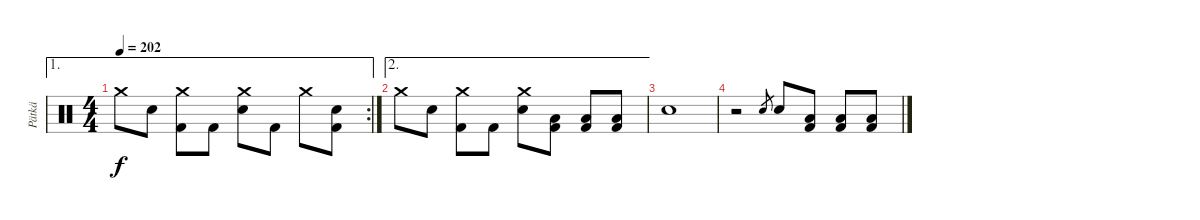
\track ("Pätkä" "Pätkä") {instrument percussion}
\staff {score}
\articulation defaults
\ae 1
\rc 2
\ts (4 4)
\tempo 202
\clef neutral
\ks c "Crash medium (hit)".8{dy f} "Electric Snare (hit)".8
("Crash medium (hit)" "Kick (hit) 2").8 "Kick (hit) 2".8 ("Crash medium (hit)" "Electric Snare (hit)").8 "Kick (hit) 2".8 "Crash medium (hit)".8 ("Electric Snare (hit)" "Kick (hit) 2").8 |
\ae 2 "Crash medium (hit)".8 "Electric Snare (hit)".8
("Crash medium (hit)" "Kick (hit) 2").8 "Kick (hit) 2".8 ("Crash medium (hit)" "Electric Snare (hit)").8 ("Low Tom (hit)" "Kick (hit) 2").8 ("Low Tom (hit)" "Kick (hit) 2").8 ("Low Floor Tom (hit)" "Kick (hit) 2").8 |
"Electric Snare (hit)".1 |
r.2 "Electric Snare (hit)".8{gr} "Electric Snare (hit)".8 ("Low Tom (hit)" "Kick (hit) 2").8 ("Low Tom (hit)" "Kick (hit) 2").8 ("Low Floor Tom (hit)" "Kick (hit) 2").8
